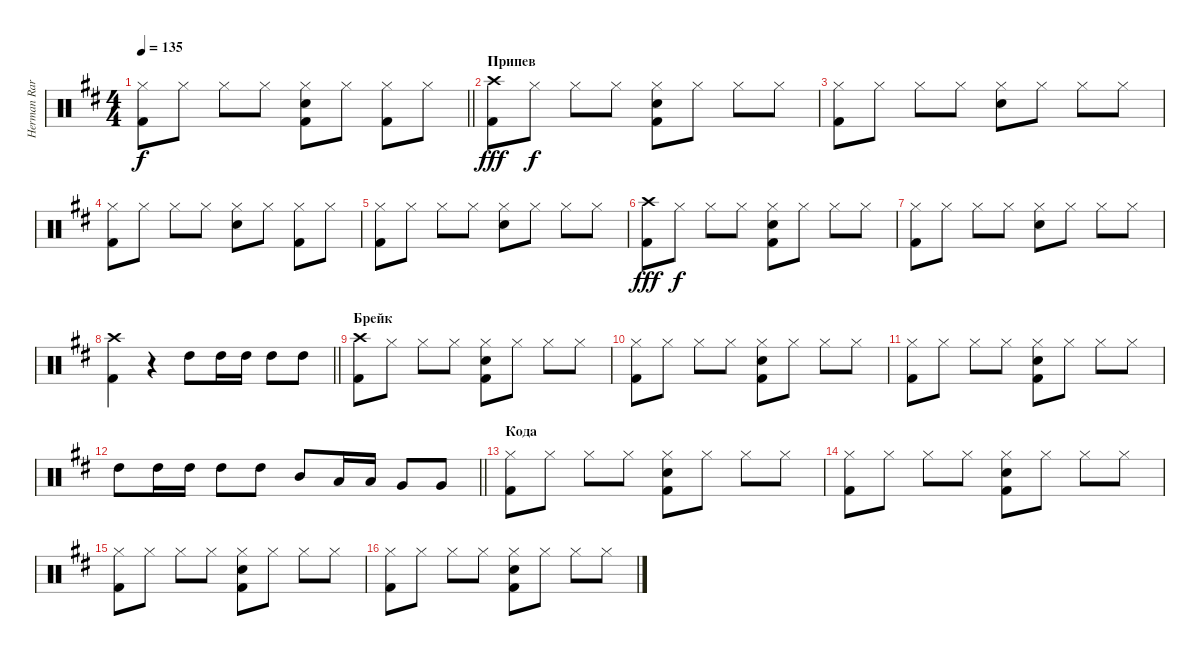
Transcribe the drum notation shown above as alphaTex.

\track ("Herman Rarebell" "Herman Rar") {instrument percussion}
\staff {score}
\articulation defaults
\ts (4 4)
\tempo 135
\clef neutral
\barLineRight lightlight
\ks d
("Hi-Hat (closed)" "Kick (hit) 2").8{dy f} "Hi-Hat (closed)".8 "Hi-Hat (closed)".8 "Hi-Hat (closed)".8 ("Hi-Hat (closed)" "Snare (hit) 2" "Kick (hit) 2").8 "Hi-Hat (closed)".8 ("Hi-Hat (closed)" "Kick (hit) 2").8 "Hi-Hat (closed)".8 |
\section ("" "Припев")
("Crash high (hit)" "Kick (hit) 2").8{dy fff} "Hi-Hat (closed)".8{dy f} "Hi-Hat (closed)".8 "Hi-Hat (closed)".8 ("Hi-Hat (closed)" "Snare (hit) 2" "Kick (hit) 2").8 "Hi-Hat (closed)".8 "Hi-Hat (closed)".8 "Hi-Hat (closed)".8 |
("Hi-Hat (closed)" "Kick (hit) 2").8 "Hi-Hat (closed)".8 "Hi-Hat (closed)".8 "Hi-Hat (closed)".8 ("Hi-Hat (closed)" "Snare (hit) 2").8 "Hi-Hat (closed)".8 "Hi-Hat (closed)".8 "Hi-Hat (closed)".8 |
("Hi-Hat (closed)" "Kick (hit) 2").8 "Hi-Hat (closed)".8 "Hi-Hat (closed)".8 "Hi-Hat (closed)".8 ("Hi-Hat (closed)" "Snare (hit) 2").8 "Hi-Hat (closed)".8 ("Hi-Hat (closed)" "Kick (hit) 2").8 "Hi-Hat (closed)".8 |
("Hi-Hat (closed)" "Kick (hit) 2").8 "Hi-Hat (closed)".8 "Hi-Hat (closed)".8 "Hi-Hat (closed)".8 ("Hi-Hat (closed)" "Snare (hit) 2").8 "Hi-Hat (closed)".8 "Hi-Hat (closed)".8 "Hi-Hat (closed)".8 |
("Crash high (hit)" "Kick (hit) 2").8{dy fff} "Hi-Hat (closed)".8{dy f} "Hi-Hat (closed)".8 "Hi-Hat (closed)".8 ("Hi-Hat (closed)" "Snare (hit) 2" "Kick (hit) 2").8 "Hi-Hat (closed)".8 "Hi-Hat (closed)".8 "Hi-Hat (closed)".8 |
("Hi-Hat (closed)" "Kick (hit) 2").8 "Hi-Hat (closed)".8 "Hi-Hat (closed)".8 "Hi-Hat (closed)".8 ("Hi-Hat (closed)" "Snare (hit) 2").8 "Hi-Hat (closed)".8 "Hi-Hat (closed)".8 "Hi-Hat (closed)".8 |
\barLineRight lightlight
("Crash high (hit)" "Kick (hit) 2").4 r.4 "High Tom (hit)".8 "High Tom (hit)".16 "High Tom (hit)".16 "High Tom (hit)".8 "High Tom (hit)".8 |
\section ("" "Брейк")
("Crash high (hit)" "Kick (hit) 2").8 "Hi-Hat (closed)".8 "Hi-Hat (closed)".8 "Hi-Hat (closed)".8 ("Hi-Hat (closed)" "Snare (hit) 2" "Kick (hit) 2").8 "Hi-Hat (closed)".8 "Hi-Hat (closed)".8 "Hi-Hat (closed)".8 |
("Hi-Hat (closed)" "Kick (hit) 2").8 "Hi-Hat (closed)".8 "Hi-Hat (closed)".8 "Hi-Hat (closed)".8 ("Hi-Hat (closed)" "Snare (hit) 2" "Kick (hit) 2").8 "Hi-Hat (closed)".8 "Hi-Hat (closed)".8 "Hi-Hat (closed)".8 |
("Hi-Hat (closed)" "Kick (hit) 2").8 "Hi-Hat (closed)".8 "Hi-Hat (closed)".8 "Hi-Hat (closed)".8 ("Hi-Hat (closed)" "Snare (hit) 2" "Kick (hit) 2").8 "Hi-Hat (closed)".8 "Hi-Hat (closed)".8 "Hi-Hat (closed)".8 |
\barLineRight lightlight "High Tom (hit)".8 "High Tom (hit)".16 "High Tom (hit)".16 "High Tom (hit)".8 "High Tom (hit)".8 "Mid Tom (hit)".8 "Low Tom (hit)".16 "Low Tom (hit)".16 "Very Low Tom (hit)".8 "Very Low Tom (hit)".8
|
\section ("" "Кода")
("Hi-Hat (closed)" "Kick (hit) 2").8 "Hi-Hat (closed)".8 "Hi-Hat (closed)".8 "Hi-Hat (closed)".8 ("Hi-Hat (closed)" "Snare (hit) 2" "Kick (hit) 2").8 "Hi-Hat (closed)".8 "Hi-Hat (closed)".8 "Hi-Hat (closed)".8 |
("Hi-Hat (closed)" "Kick (hit) 2").8 "Hi-Hat (closed)".8 "Hi-Hat (closed)".8 "Hi-Hat (closed)".8 ("Hi-Hat (closed)" "Snare (hit) 2" "Kick (hit) 2").8 "Hi-Hat (closed)".8 "Hi-Hat (closed)".8 "Hi-Hat (closed)".8 |
("Hi-Hat (closed)" "Kick (hit) 2").8 "Hi-Hat (closed)".8 "Hi-Hat (closed)".8 "Hi-Hat (closed)".8 ("Hi-Hat (closed)" "Snare (hit) 2" "Kick (hit) 2").8 "Hi-Hat (closed)".8 "Hi-Hat (closed)".8 "Hi-Hat (closed)".8 |
("Hi-Hat (closed)" "Kick (hit) 2").8 "Hi-Hat (closed)".8 "Hi-Hat (closed)".8 "Hi-Hat (closed)".8 ("Hi-Hat (closed)" "Snare (hit) 2" "Kick (hit) 2").8 "Hi-Hat (closed)".8 "Hi-Hat (closed)".8 "Hi-Hat (closed)".8
